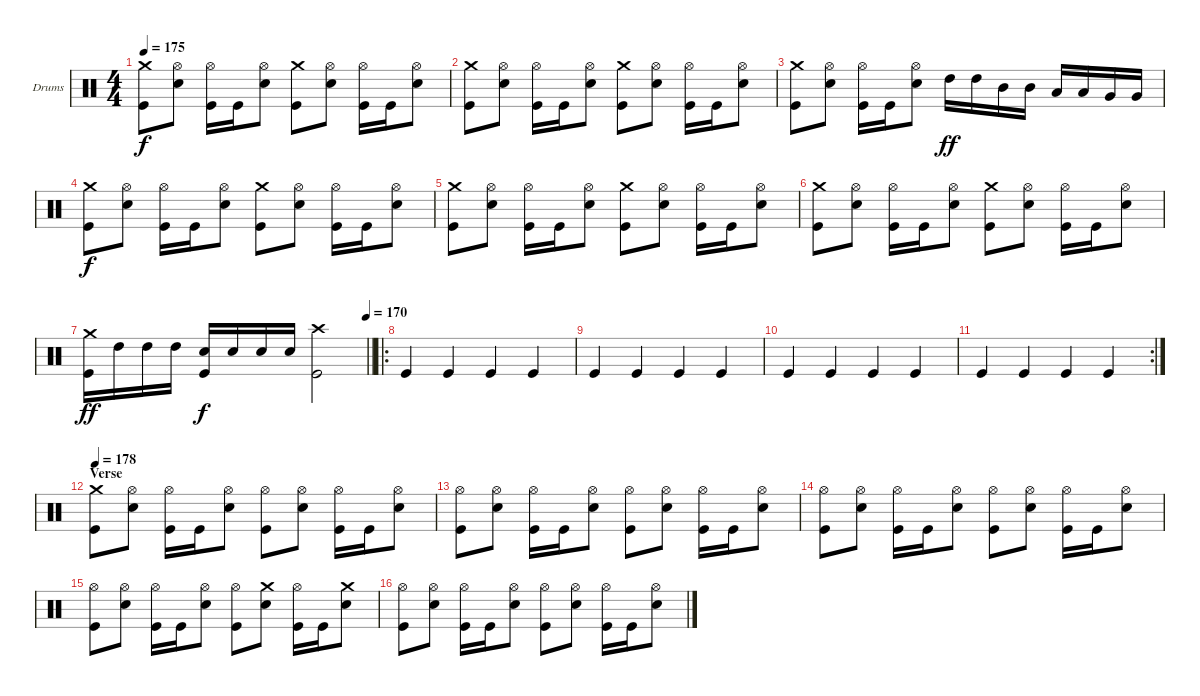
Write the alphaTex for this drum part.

\bracketExtendMode groupsimilarinstruments
\firstSystemTrackNameOrientation horizontal
\otherSystemsTrackNameOrientation horizontal
\track ("Drums" "Drums") {instrument percussion}
\staff {score}
\articulation defaults
\ts (4 4)
\tempo 175
\clef neutral
\ks c
("Crash medium (hit)" "Kick (hit)").8{dy f} ("Hi-Hat (open)" "Snare (hit) 2").8 ("Hi-Hat (open)" "Kick (hit)").16 "Kick (hit)".16 ("Hi-Hat (open)" "Snare (hit) 2").8 ("Kick (hit)" "Crash medium (hit)").8 ("Hi-Hat (open)" "Snare (hit) 2").8 ("Hi-Hat (open)" "Kick (hit)").16 "Kick (hit)".16 ("Hi-Hat (open)" "Snare (hit) 2").8 |
("Crash medium (hit)" "Kick (hit)").8 ("Hi-Hat (open)" "Snare (hit) 2").8 ("Hi-Hat (open)" "Kick (hit)").16 "Kick (hit)".16 ("Hi-Hat (open)" "Snare (hit) 2").8 ("Kick (hit)" "Crash medium (hit)").8 ("Hi-Hat (open)" "Snare (hit) 2").8 ("Hi-Hat (open)" "Kick (hit)").16 "Kick (hit)".16 ("Hi-Hat (open)" "Snare (hit) 2").8 |
("Crash medium (hit)" "Kick (hit)").8 ("Hi-Hat (open)" "Snare (hit) 2").8 ("Hi-Hat (open)" "Kick (hit)").16 "Kick (hit)".16 ("Hi-Hat (open)" "Snare (hit) 2").8 "High Tom (hit)".16{dy ff} "High Tom (hit)".16 "Mid Tom (hit)".16 "Mid Tom (hit)".16 "Low Tom (hit)".16 "Low Tom (hit)".16 "Very Low Tom (hit)".16 "Very Low Tom (hit)".16 |
("Crash medium (hit)" "Kick (hit)").8{dy f} ("Hi-Hat (open)" "Snare (hit) 2").8 ("Hi-Hat (open)" "Kick (hit)").16 "Kick (hit)".16 ("Hi-Hat (open)" "Snare (hit) 2").8 ("Kick (hit)" "Crash medium (hit)").8 ("Hi-Hat (open)" "Snare (hit) 2").8 ("Hi-Hat (open)" "Kick (hit)").16 "Kick (hit)".16 ("Hi-Hat (open)" "Snare (hit) 2").8 |
("Crash medium (hit)" "Kick (hit)").8 ("Hi-Hat (open)" "Snare (hit) 2").8 ("Hi-Hat (open)" "Kick (hit)").16 "Kick (hit)".16 ("Hi-Hat (open)" "Snare (hit) 2").8 ("Kick (hit)" "Crash medium (hit)").8 ("Hi-Hat (open)" "Snare (hit) 2").8 ("Hi-Hat (open)" "Kick (hit)").16 "Kick (hit)".16 ("Hi-Hat (open)" "Snare (hit) 2").8 |
("Crash medium (hit)" "Kick (hit)").8 ("Hi-Hat (open)" "Snare (hit) 2").8 ("Hi-Hat (open)" "Kick (hit)").16 "Kick (hit)".16 ("Hi-Hat (open)" "Snare (hit) 2").8 ("Kick (hit)" "Crash medium (hit)").8 ("Hi-Hat (open)" "Snare (hit) 2").8 ("Hi-Hat (open)" "Kick (hit)").16 "Kick (hit)".16 ("Hi-Hat (open)" "Snare (hit) 2").8 |
\tempo (170 1)
\barLineRight lightlight
("Crash medium (hit)" "Kick (hit)").16{dy ff} "High Tom (hit)".16 "High Tom (hit)".16 "High Tom (hit)".16 ("Snare (hit) 2" "Kick (hit)").16{dy f} "Snare (hit) 2".16 "Snare (hit) 2".16 "Snare (hit) 2".16 ("Kick (hit)" "Crash high (hit)").2 |
\ro "Kick (hit)".4 "Kick (hit)".4 "Kick (hit)".4 "Kick (hit)".4
|
"Kick (hit)".4 "Kick (hit)".4 "Kick (hit)".4 "Kick (hit)".4 |
"Kick (hit)".4 "Kick (hit)".4 "Kick (hit)".4 "Kick (hit)".4 |
\rc 2 "Kick (hit)".4 "Kick (hit)".4 "Kick (hit)".4 "Kick (hit)".4
|
\section ("" "Verse")
\tempo 178
("Crash medium (hit)" "Kick (hit)").8 ("Hi-Hat (open)" "Snare (hit) 2").8 ("Hi-Hat (open)" "Kick (hit)").16 "Kick (hit)".16 ("Hi-Hat (open)" "Snare (hit) 2").8 ("Hi-Hat (open)" "Kick (hit)").8 ("Hi-Hat (open)" "Snare (hit) 2").8 ("Hi-Hat (open)" "Kick (hit)").16 "Kick (hit)".16 ("Hi-Hat (open)" "Snare (hit) 2").8 |
("Hi-Hat (open)" "Kick (hit)").8 ("Hi-Hat (open)" "Snare (hit) 2").8 ("Hi-Hat (open)" "Kick (hit)").16 "Kick (hit)".16 ("Hi-Hat (open)" "Snare (hit) 2").8 ("Hi-Hat (open)" "Kick (hit)").8 ("Hi-Hat (open)" "Snare (hit) 2").8 ("Hi-Hat (open)" "Kick (hit)").16 "Kick (hit)".16 ("Hi-Hat (open)" "Snare (hit) 2").8 |
("Hi-Hat (open)" "Kick (hit)").8 ("Hi-Hat (open)" "Snare (hit) 2").8 ("Hi-Hat (open)" "Kick (hit)").16 "Kick (hit)".16 ("Hi-Hat (open)" "Snare (hit) 2").8 ("Hi-Hat (open)" "Kick (hit)").8 ("Hi-Hat (open)" "Snare (hit) 2").8 ("Hi-Hat (open)" "Kick (hit)").16 "Kick (hit)".16 ("Hi-Hat (open)" "Snare (hit) 2").8 |
("Hi-Hat (open)" "Kick (hit)").8 ("Hi-Hat (open)" "Snare (hit) 2").8 ("Hi-Hat (open)" "Kick (hit)").16 "Kick (hit)".16 ("Hi-Hat (open)" "Snare (hit) 2").8 ("Hi-Hat (open)" "Kick (hit)").8 ("Snare (hit) 2" "Crash medium (hit)").8 ("Hi-Hat (open)" "Kick (hit)").16 "Kick (hit)".16 ("Snare (hit) 2" "Crash medium (hit)").8 |
("Hi-Hat (open)" "Kick (hit)").8 ("Hi-Hat (open)" "Snare (hit) 2").8 ("Hi-Hat (open)" "Kick (hit)").16 "Kick (hit)".16 ("Hi-Hat (open)" "Snare (hit) 2").8 ("Hi-Hat (open)" "Kick (hit)").8 ("Hi-Hat (open)" "Snare (hit) 2").8 ("Hi-Hat (open)" "Kick (hit)").16 "Kick (hit)".16 ("Hi-Hat (open)" "Snare (hit) 2").8
